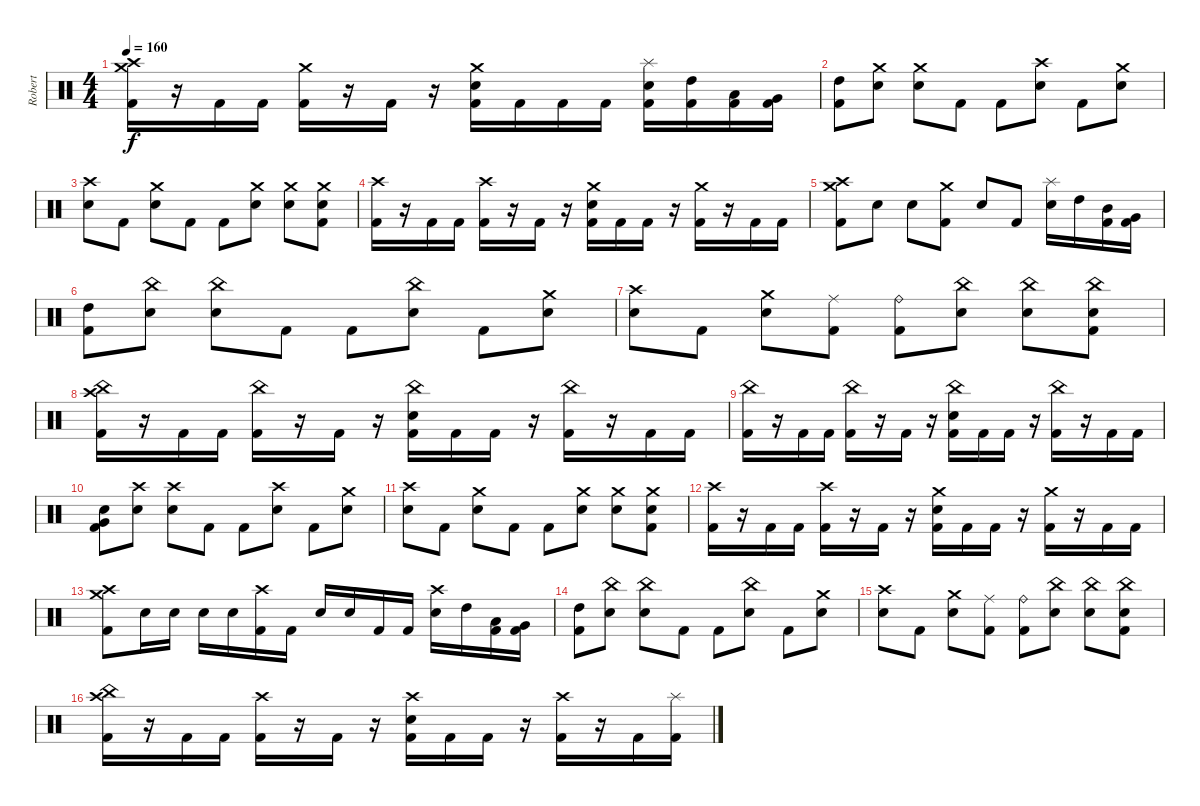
\track ("Robert" "Robert") {instrument percussion}
\staff {score}
\articulation defaults
\ts (4 4)
\tempo 160
\clef neutral
\ks c
("Crash medium (hit)" "Crash high (hit)" "Kick (hit) 2").16{dy f} r.16 "Kick (hit) 2".16 "Kick (hit) 2".16 ("Crash medium (hit)" "Kick (hit) 2").16 r.16 "Kick (hit) 2".16 r.16 ("Crash medium (hit)" "Electric Snare (hit)" "Kick (hit) 2").16 "Kick (hit) 2".16 "Kick (hit) 2".16 "Kick (hit) 2".16 ("Electric Snare (hit)" "Splash (hit)" "Kick (hit) 2").16 ("Kick (hit) 2" "High Tom (hit)").16 ("Low Tom (hit)" "Kick (hit) 2").16 ("Very Low Tom (hit)" "Kick (hit) 2").16 |
("High Tom (hit)" "Kick (hit) 2").8 ("Crash medium (hit)" "Electric Snare (hit)").8 ("Crash medium (hit)" "Electric Snare (hit)").8 "Kick (hit) 2".8 "Kick (hit) 2".8 ("Crash high (hit)" "Electric Snare (hit)").8 "Kick (hit) 2".8 ("Crash medium (hit)" "Electric Snare (hit)").8 |
("Crash high (hit)" "Electric Snare (hit)").8 "Kick (hit) 2".8 ("Electric Snare (hit)" "Crash medium (hit)").8 "Kick (hit) 2".8 "Kick (hit) 2".8 ("Electric Snare (hit)" "Crash medium (hit)").8 ("Electric Snare (hit)" "Crash medium (hit)").8 ("Electric Snare (hit)" "Crash medium (hit)" "Kick (hit) 2").8 |
("Kick (hit) 2" "Crash high (hit)").16 r.16 "Kick (hit) 2".16 "Kick (hit) 2".16 ("Kick (hit) 2" "Crash high (hit)").16 r.16 "Kick (hit) 2".16 r.16 ("Crash medium (hit)" "Electric Snare (hit)" "Kick (hit) 2").16 "Kick (hit) 2".16 "Kick (hit) 2".16 r.16 ("Kick (hit) 2" "Crash medium (hit)").16 r.16 "Kick (hit) 2".16 "Kick (hit) 2".16 |
("Crash medium (hit)" "Crash high (hit)" "Kick (hit) 2").8 "Electric Snare (hit)".8 "Electric Snare (hit)".8 ("Crash medium (hit)" "Kick (hit) 2").8 "Electric Snare (hit)".8 "Kick (hit) 2".8 ("Splash (hit)" "Electric Snare (hit)").16 "High Tom (hit)".16 ("Kick (hit) 2" "Mid Tom (hit)").16 ("Kick (hit) 2" "Very Low Tom (hit)").16 |
("High Tom (hit)" "Kick (hit) 2").8 ("China (hit)" "Electric Snare (hit)").8 ("China (hit)" "Electric Snare (hit)").8 "Kick (hit) 2".8 "Kick (hit) 2".8 ("China (hit)" "Electric Snare (hit)").8 "Kick (hit) 2".8 ("Crash medium (hit)" "Electric Snare (hit)").8 |
("Crash high (hit)" "Electric Snare (hit)").8 "Kick (hit) 2".8 ("Electric Snare (hit)" "Crash medium (hit)").8 ("Kick (hit) 2" "Ride (middle)").8 ("Kick (hit) 2" "Ride (bell)").8 ("Electric Snare (hit)" "China (hit)").8 ("Electric Snare (hit)" "China (hit)").8 ("Electric Snare (hit)" "China (hit)" "Kick (hit) 2").8 |
("Kick (hit) 2" "China (hit)" "Crash high (hit)").16 r.16 "Kick (hit) 2".16 "Kick (hit) 2".16 ("Kick (hit) 2" "China (hit)").16 r.16 "Kick (hit) 2".16 r.16 ("China (hit)" "Electric Snare (hit)" "Kick (hit) 2").16 "Kick (hit) 2".16 "Kick (hit) 2".16 r.16 ("Kick (hit) 2" "China (hit)").16 r.16 "Kick (hit) 2".16 "Kick (hit) 2".16 |
("Kick (hit) 2" "China (hit)").16 r.16 "Kick (hit) 2".16 "Kick (hit) 2".16 ("Kick (hit) 2" "China (hit)").16 r.16 "Kick (hit) 2".16 r.16 ("China (hit)" "Electric Snare (hit)" "Kick (hit) 2").16 "Kick (hit) 2".16 "Kick (hit) 2".16 r.16 ("Kick (hit) 2" "China (hit)").16 r.16 "Kick (hit) 2".16 "Kick (hit) 2".16 |
("Very Low Tom (hit)" "Snare (hit)" "Kick (hit) 2").8 ("Crash high (hit)" "Electric Snare (hit)").8 ("Crash high (hit)" "Electric Snare (hit)").8 "Kick (hit) 2".8 "Kick (hit) 2".8 ("Crash high (hit)" "Electric Snare (hit)").8 "Kick (hit) 2".8 ("Crash medium (hit)" "Electric Snare (hit)").8 |
("Crash high (hit)" "Electric Snare (hit)").8 "Kick (hit) 2".8 ("Electric Snare (hit)" "Crash medium (hit)").8 "Kick (hit) 2".8 "Kick (hit) 2".8 ("Electric Snare (hit)" "Crash medium (hit)").8 ("Electric Snare (hit)" "Crash medium (hit)").8 ("Electric Snare (hit)" "Crash medium (hit)" "Kick (hit) 2").8 |
("Kick (hit) 2" "Crash high (hit)").16 r.16 "Kick (hit) 2".16 "Kick (hit) 2".16 ("Kick (hit) 2" "Crash high (hit)").16 r.16 "Kick (hit) 2".16 r.16 ("Crash medium (hit)" "Electric Snare (hit)" "Kick (hit) 2").16 "Kick (hit) 2".16 "Kick (hit) 2".16 r.16 ("Kick (hit) 2" "Crash medium (hit)").16 r.16 "Kick (hit) 2".16 "Kick (hit) 2".16 |
("Crash medium (hit)" "Crash high (hit)" "Kick (hit) 2").8 "Electric Snare (hit)".16 "Electric Snare (hit)".16 "Electric Snare (hit)".16 "Electric Snare (hit)".16 ("Crash high (hit)" "Kick (hit) 2").16 "Kick (hit) 2".16 "Electric Snare (hit)".16 "Electric Snare (hit)".16 "Kick (hit) 2".16 "Kick (hit) 2".16 ("Crash high (hit)" "Electric Snare (hit)").16 "High Tom (hit)".16 ("Kick (hit) 2" "Low Tom (hit)").16 ("Kick (hit) 2" "Very Low Tom (hit)").16 |
("High Tom (hit)" "Kick (hit) 2").8 ("China (hit)" "Electric Snare (hit)").8 ("China (hit)" "Electric Snare (hit)").8 "Kick (hit) 2".8 "Kick (hit) 2".8 ("China (hit)" "Electric Snare (hit)").8 "Kick (hit) 2".8 ("Crash medium (hit)" "Electric Snare (hit)").8 |
("Crash high (hit)" "Electric Snare (hit)").8 "Kick (hit) 2".8 ("Electric Snare (hit)" "Crash medium (hit)").8 ("Kick (hit) 2" "Ride (middle)").8 ("Kick (hit) 2" "Ride (bell)").8 ("Electric Snare (hit)" "China (hit)").8 ("Electric Snare (hit)" "China (hit)").8 ("Electric Snare (hit)" "China (hit)" "Kick (hit) 2").8 |
("Kick (hit) 2" "China (hit)" "Crash high (hit)").16 r.16 "Kick (hit) 2".16 "Kick (hit) 2".16 ("Kick (hit) 2" "Crash high (hit)").16 r.16 "Kick (hit) 2".16 r.16 ("Crash high (hit)" "Electric Snare (hit)" "Kick (hit) 2").16 "Kick (hit) 2".16 "Kick (hit) 2".16 r.16 ("Kick (hit) 2" "Crash high (hit)").16 r.16 "Kick (hit) 2".16 ("Kick (hit) 2" "Splash (hit)").16
